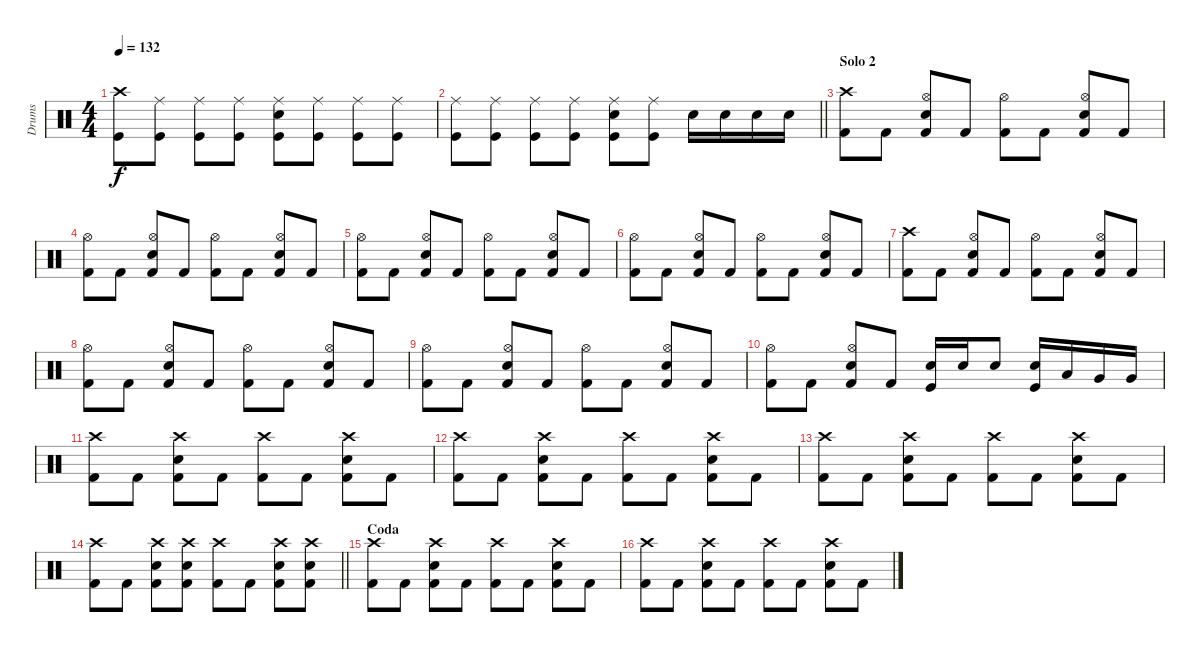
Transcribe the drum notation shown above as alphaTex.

\track ("Drums" "Drums") {instrument percussion}
\staff {score}
\articulation defaults
\ts (4 4)
\tempo 132
\clef neutral
\ks c
("Kick (hit)" "Crash high (hit)").8{dy f} ("Kick (hit)" "Ride (middle)").8 ("Kick (hit)" "Ride (middle)").8 ("Kick (hit)" "Ride (middle)").8 ("Kick (hit)" "Snare (hit) 2" "Ride (middle)").8 ("Kick (hit)" "Ride (middle)").8 ("Kick (hit)" "Ride (middle)").8 ("Kick (hit)" "Ride (middle)").8 |
\barLineRight lightlight
("Kick (hit)" "Ride (middle)").8 ("Kick (hit)" "Ride (middle)").8 ("Kick (hit)" "Ride (middle)").8 ("Kick (hit)" "Ride (middle)").8 ("Kick (hit)" "Ride (middle)" "Snare (hit) 2").8 ("Kick (hit)" "Ride (middle)").8 "Snare (hit) 2".16 "Snare (hit) 2".16 "Snare (hit) 2".16 "Snare (hit) 2".16 |
\section ("" "Solo 2")
("Crash high (hit)" "Kick (hit) 2").8 "Kick (hit) 2".8 ("Hi-Hat (open)" "Electric Snare (hit)" "Kick (hit) 2").8 "Kick (hit) 2".8 ("Hi-Hat (open)" "Kick (hit) 2").8 "Kick (hit) 2".8 ("Hi-Hat (open)" "Electric Snare (hit)" "Kick (hit) 2").8 "Kick (hit) 2".8 |
("Hi-Hat (open)" "Kick (hit) 2").8 "Kick (hit) 2".8 ("Hi-Hat (open)" "Electric Snare (hit)" "Kick (hit) 2").8 "Kick (hit) 2".8 ("Hi-Hat (open)" "Kick (hit) 2").8 "Kick (hit) 2".8 ("Hi-Hat (open)" "Electric Snare (hit)" "Kick (hit) 2").8 "Kick (hit) 2".8 |
("Hi-Hat (open)" "Kick (hit) 2").8 "Kick (hit) 2".8 ("Hi-Hat (open)" "Electric Snare (hit)" "Kick (hit) 2").8 "Kick (hit) 2".8 ("Hi-Hat (open)" "Kick (hit) 2").8 "Kick (hit) 2".8 ("Hi-Hat (open)" "Electric Snare (hit)" "Kick (hit) 2").8 "Kick (hit) 2".8 |
("Hi-Hat (open)" "Kick (hit) 2").8 "Kick (hit) 2".8 ("Hi-Hat (open)" "Electric Snare (hit)" "Kick (hit) 2").8 "Kick (hit) 2".8 ("Hi-Hat (open)" "Kick (hit) 2").8 "Kick (hit) 2".8 ("Hi-Hat (open)" "Electric Snare (hit)" "Kick (hit) 2").8 "Kick (hit) 2".8 |
("Crash high (hit)" "Kick (hit) 2").8 "Kick (hit) 2".8 ("Hi-Hat (open)" "Electric Snare (hit)" "Kick (hit) 2").8 "Kick (hit) 2".8 ("Hi-Hat (open)" "Kick (hit) 2").8 "Kick (hit) 2".8 ("Hi-Hat (open)" "Electric Snare (hit)" "Kick (hit) 2").8 "Kick (hit) 2".8 |
("Hi-Hat (open)" "Kick (hit) 2").8 "Kick (hit) 2".8 ("Hi-Hat (open)" "Electric Snare (hit)" "Kick (hit) 2").8 "Kick (hit) 2".8 ("Hi-Hat (open)" "Kick (hit) 2").8 "Kick (hit) 2".8 ("Hi-Hat (open)" "Electric Snare (hit)" "Kick (hit) 2").8 "Kick (hit) 2".8 |
("Hi-Hat (open)" "Kick (hit) 2").8 "Kick (hit) 2".8 ("Hi-Hat (open)" "Electric Snare (hit)" "Kick (hit) 2").8 "Kick (hit) 2".8 ("Hi-Hat (open)" "Kick (hit) 2").8 "Kick (hit) 2".8 ("Hi-Hat (open)" "Electric Snare (hit)" "Kick (hit) 2").8 "Kick (hit) 2".8 |
("Hi-Hat (open)" "Kick (hit) 2").8 "Kick (hit) 2".8 ("Hi-Hat (open)" "Electric Snare (hit)" "Kick (hit) 2").8 "Kick (hit) 2".8 ("Kick (hit)" "Snare (hit) 2").16 "Snare (hit) 2".16 "Snare (hit) 2".8 ("Snare (hit) 2" "Kick (hit)").16 "Low Tom (hit)".16 "Very Low Tom (hit)".16 "Very Low Tom (hit)".16 |
("Crash high (hit)" "Kick (hit) 2").8 "Kick (hit) 2".8 ("Crash high (hit)" "Electric Snare (hit)" "Kick (hit) 2").8 "Kick (hit) 2".8 ("Crash high (hit)" "Kick (hit) 2").8 "Kick (hit) 2".8 ("Crash high (hit)" "Electric Snare (hit)" "Kick (hit) 2").8 "Kick (hit) 2".8 |
("Crash high (hit)" "Kick (hit) 2").8 "Kick (hit) 2".8 ("Crash high (hit)" "Electric Snare (hit)" "Kick (hit) 2").8 "Kick (hit) 2".8 ("Crash high (hit)" "Kick (hit) 2").8 "Kick (hit) 2".8 ("Crash high (hit)" "Electric Snare (hit)" "Kick (hit) 2").8 "Kick (hit) 2".8 |
("Crash high (hit)" "Kick (hit) 2").8 "Kick (hit) 2".8 ("Crash high (hit)" "Electric Snare (hit)" "Kick (hit) 2").8 "Kick (hit) 2".8 ("Crash high (hit)" "Kick (hit) 2").8 "Kick (hit) 2".8 ("Crash high (hit)" "Electric Snare (hit)" "Kick (hit) 2").8 "Kick (hit) 2".8 |
\barLineRight lightlight
("Crash high (hit)" "Kick (hit) 2").8 "Kick (hit) 2".8 ("Crash high (hit)" "Electric Snare (hit)" "Kick (hit) 2").8 ("Snare (hit) 2" "Crash high (hit)" "Kick (hit) 2").8 ("Crash high (hit)" "Kick (hit) 2").8 "Kick (hit) 2".8 ("Crash high (hit)" "Electric Snare (hit)" "Kick (hit) 2").8 ("Snare (hit) 2" "Crash high (hit)" "Kick (hit) 2").8 |
\section ("" "Coda")
("Crash high (hit)" "Kick (hit) 2").8 "Kick (hit) 2".8 ("Crash high (hit)" "Electric Snare (hit)" "Kick (hit) 2").8 "Kick (hit) 2".8 ("Crash high (hit)" "Kick (hit) 2").8 "Kick (hit) 2".8 ("Crash high (hit)" "Electric Snare (hit)" "Kick (hit) 2").8 "Kick (hit) 2".8 |
("Crash high (hit)" "Kick (hit) 2").8 "Kick (hit) 2".8 ("Crash high (hit)" "Electric Snare (hit)" "Kick (hit) 2").8 "Kick (hit) 2".8 ("Crash high (hit)" "Kick (hit) 2").8 "Kick (hit) 2".8 ("Crash high (hit)" "Electric Snare (hit)" "Kick (hit) 2").8 "Kick (hit) 2".8
